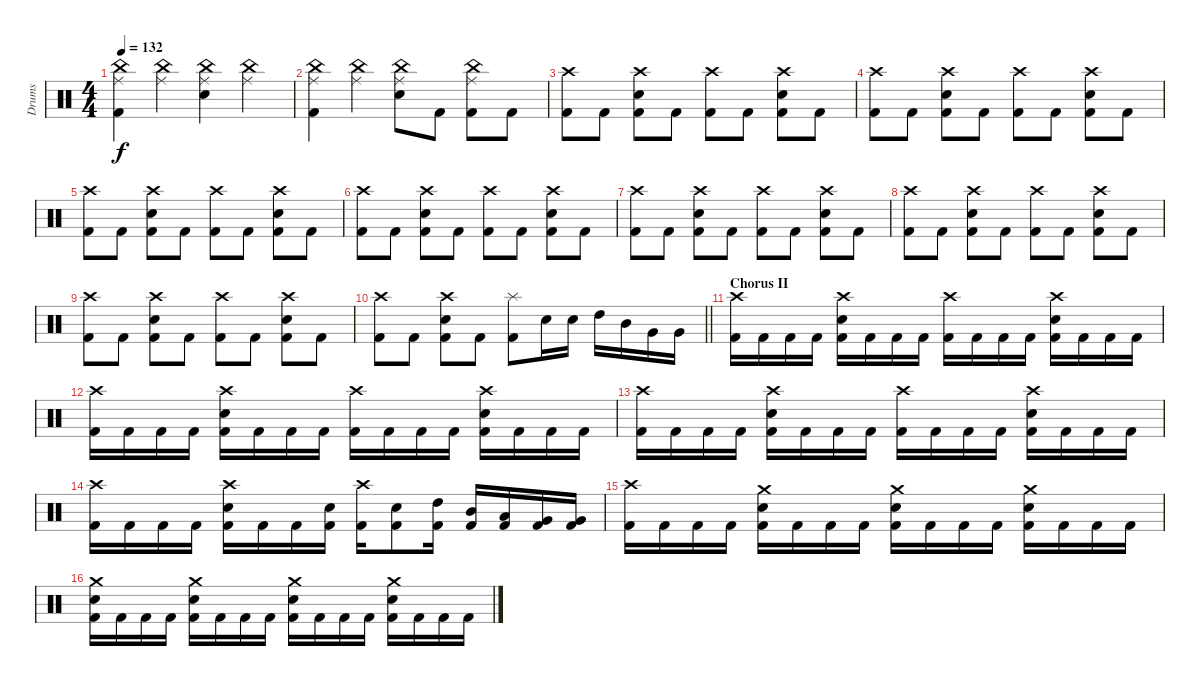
\track ("Drums" "Drums") {instrument percussion}
\staff {score}
\articulation defaults
\ts (4 4)
\tempo 132
\clef neutral
\ks c
("China (hit)" "Ride (middle)" "Kick (hit) 2").4{dy f} ("China (hit)" "Ride (middle)").4 ("China (hit)" "Ride (middle)" "Snare (hit) 2").4 ("China (hit)" "Ride (middle)").4 |
("China (hit)" "Ride (middle)" "Kick (hit) 2").4 ("China (hit)" "Ride (middle)").4 ("China (hit)" "Ride (middle)" "Snare (hit) 2").8 "Kick (hit) 2".8 ("China (hit)" "Ride (middle)" "Kick (hit) 2").8 "Kick (hit) 2".8 |
("Crash high (hit)" "Kick (hit) 2").8 "Kick (hit) 2".8 ("Crash high (hit)" "Snare (hit) 2" "Kick (hit) 2").8 "Kick (hit) 2".8 ("Crash high (hit)" "Kick (hit) 2").8 "Kick (hit) 2".8 ("Crash high (hit)" "Snare (hit) 2" "Kick (hit) 2").8 "Kick (hit) 2".8 |
("Crash high (hit)" "Kick (hit) 2").8 "Kick (hit) 2".8 ("Crash high (hit)" "Snare (hit) 2" "Kick (hit) 2").8 "Kick (hit) 2".8 ("Crash high (hit)" "Kick (hit) 2").8 "Kick (hit) 2".8 ("Crash high (hit)" "Snare (hit) 2" "Kick (hit) 2").8 "Kick (hit) 2".8 |
("Crash high (hit)" "Kick (hit) 2").8 "Kick (hit) 2".8 ("Crash high (hit)" "Snare (hit) 2" "Kick (hit) 2").8 "Kick (hit) 2".8 ("Crash high (hit)" "Kick (hit) 2").8 "Kick (hit) 2".8 ("Crash high (hit)" "Snare (hit) 2" "Kick (hit) 2").8 "Kick (hit) 2".8 |
("Crash high (hit)" "Kick (hit) 2").8 "Kick (hit) 2".8 ("Crash high (hit)" "Snare (hit) 2" "Kick (hit) 2").8 "Kick (hit) 2".8 ("Crash high (hit)" "Kick (hit) 2").8 "Kick (hit) 2".8 ("Crash high (hit)" "Snare (hit) 2" "Kick (hit) 2").8 "Kick (hit) 2".8 |
("Crash high (hit)" "Kick (hit) 2").8 "Kick (hit) 2".8 ("Crash high (hit)" "Snare (hit) 2" "Kick (hit) 2").8 "Kick (hit) 2".8 ("Crash high (hit)" "Kick (hit) 2").8 "Kick (hit) 2".8 ("Crash high (hit)" "Snare (hit) 2" "Kick (hit) 2").8 "Kick (hit) 2".8 |
("Crash high (hit)" "Kick (hit) 2").8 "Kick (hit) 2".8 ("Crash high (hit)" "Snare (hit) 2" "Kick (hit) 2").8 "Kick (hit) 2".8 ("Crash high (hit)" "Kick (hit) 2").8 "Kick (hit) 2".8 ("Crash high (hit)" "Snare (hit) 2" "Kick (hit) 2").8 "Kick (hit) 2".8 |
("Crash high (hit)" "Kick (hit) 2").8 "Kick (hit) 2".8 ("Crash high (hit)" "Snare (hit) 2" "Kick (hit) 2").8 "Kick (hit) 2".8 ("Crash high (hit)" "Kick (hit) 2").8 "Kick (hit) 2".8 ("Crash high (hit)" "Snare (hit) 2" "Kick (hit) 2").8 "Kick (hit) 2".8 |
\barLineRight lightlight
("Crash high (hit)" "Kick (hit) 2").8 "Kick (hit) 2".8 ("Crash high (hit)" "Snare (hit) 2" "Kick (hit) 2").8 "Kick (hit) 2".8 ("Splash (hit)" "Kick (hit) 2").8 "Snare (hit) 2".16 "Snare (hit) 2".16 "High Tom (hit)".16 "Mid Tom (hit)".16 "Very Low Tom (hit)".16 "Very Low Tom (hit)".16 |
\section ("" "Chorus II")
("Crash high (hit)" "Kick (hit) 2").16 "Kick (hit) 2".16 "Kick (hit) 2".16 "Kick (hit) 2".16 ("Crash high (hit)" "Snare (hit) 2" "Kick (hit) 2").16 "Kick (hit) 2".16 "Kick (hit) 2".16 "Kick (hit) 2".16 ("Crash high (hit)" "Kick (hit) 2").16 "Kick (hit) 2".16 "Kick (hit) 2".16 "Kick (hit) 2".16 ("Crash high (hit)" "Snare (hit) 2" "Kick (hit) 2").16 "Kick (hit) 2".16 "Kick (hit) 2".16 "Kick (hit) 2".16 |
("Crash high (hit)" "Kick (hit) 2").16 "Kick (hit) 2".16 "Kick (hit) 2".16 "Kick (hit) 2".16 ("Crash high (hit)" "Snare (hit) 2" "Kick (hit) 2").16 "Kick (hit) 2".16 "Kick (hit) 2".16 "Kick (hit) 2".16 ("Crash high (hit)" "Kick (hit) 2").16 "Kick (hit) 2".16 "Kick (hit) 2".16 "Kick (hit) 2".16 ("Crash high (hit)" "Snare (hit) 2" "Kick (hit) 2").16 "Kick (hit) 2".16 "Kick (hit) 2".16 "Kick (hit) 2".16 |
("Crash high (hit)" "Kick (hit) 2").16 "Kick (hit) 2".16 "Kick (hit) 2".16 "Kick (hit) 2".16 ("Crash high (hit)" "Snare (hit) 2" "Kick (hit) 2").16 "Kick (hit) 2".16 "Kick (hit) 2".16 "Kick (hit) 2".16 ("Crash high (hit)" "Kick (hit) 2").16 "Kick (hit) 2".16 "Kick (hit) 2".16 "Kick (hit) 2".16 ("Crash high (hit)" "Snare (hit) 2" "Kick (hit) 2").16 "Kick (hit) 2".16 "Kick (hit) 2".16 "Kick (hit) 2".16 |
("Crash high (hit)" "Kick (hit) 2").16 "Kick (hit) 2".16 "Kick (hit) 2".16 "Kick (hit) 2".16 ("Crash high (hit)" "Snare (hit) 2" "Kick (hit) 2").16 "Kick (hit) 2".16 "Kick (hit) 2".16 ("Snare (hit) 2" "Kick (hit) 2").16 ("Crash high (hit)" "Kick (hit) 2").16 ("Snare (hit) 2" "Kick (hit) 2").8 ("High Tom (hit)" "Kick (hit) 2").16 ("Mid Tom (hit)" "Kick (hit) 2").16 ("Low Tom (hit)" "Kick (hit) 2").16 ("Very Low Tom (hit)" "Kick (hit) 2").16 ("Very Low Tom (hit)" "Kick (hit) 2").16 |
("Crash high (hit)" "Kick (hit) 2").16 "Kick (hit) 2".16 "Kick (hit) 2".16 "Kick (hit) 2".16 ("Crash medium (hit)" "Snare (hit) 2" "Kick (hit) 2").16 "Kick (hit) 2".16 "Kick (hit) 2".16 "Kick (hit) 2".16 ("Crash medium (hit)" "Snare (hit) 2" "Kick (hit) 2").16 "Kick (hit) 2".16 "Kick (hit) 2".16 "Kick (hit) 2".16 ("Crash medium (hit)" "Snare (hit) 2" "Kick (hit) 2").16 "Kick (hit) 2".16 "Kick (hit) 2".16 "Kick (hit) 2".16 |
("Crash medium (hit)" "Snare (hit) 2" "Kick (hit) 2").16 "Kick (hit) 2".16 "Kick (hit) 2".16 "Kick (hit) 2".16 ("Crash medium (hit)" "Snare (hit) 2" "Kick (hit) 2").16 "Kick (hit) 2".16 "Kick (hit) 2".16 "Kick (hit) 2".16 ("Crash medium (hit)" "Snare (hit) 2" "Kick (hit) 2").16 "Kick (hit) 2".16 "Kick (hit) 2".16 "Kick (hit) 2".16 ("Crash medium (hit)" "Snare (hit) 2" "Kick (hit) 2").16 "Kick (hit) 2".16 "Kick (hit) 2".16 "Kick (hit) 2".16
